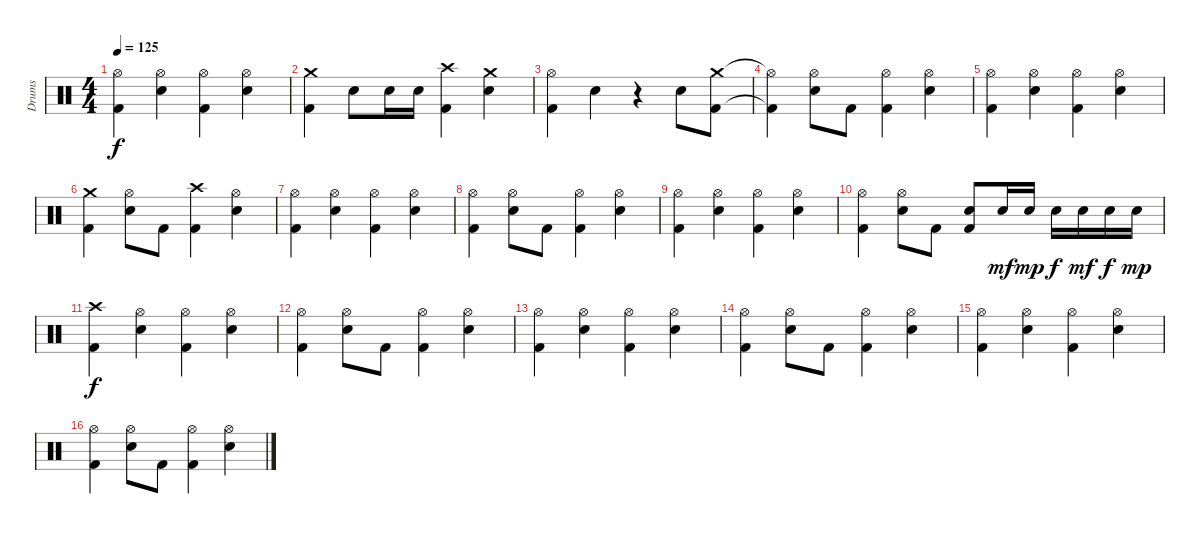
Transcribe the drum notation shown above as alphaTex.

\track ("Drums" "Drums") {instrument percussion}
\staff {score}
\articulation defaults
\ts (4 4)
\tempo 125
\clef neutral
\ks c
("Hi-Hat (open)" "Kick (hit) 2").4{dy f} ("Hi-Hat (open)" "Electric Snare (hit)").4 ("Hi-Hat (open)" "Kick (hit) 2").4 ("Hi-Hat (open)" "Electric Snare (hit)").4 |
("Crash medium (hit)" "Kick (hit) 2").4 "Electric Snare (hit)".8 "Electric Snare (hit)".16 "Electric Snare (hit)".16 ("Crash high (hit)" "Kick (hit) 2").4 ("Crash medium (hit)" "Electric Snare (hit)").4 |
("Hi-Hat (open)" "Kick (hit) 2").4 "Snare (hit) 2".4 r.4 "Electric Snare (hit)".8 ("Crash medium (hit)" "Kick (hit) 2").8 |
("Hi-Hat (open)"{t} "Kick (hit) 2"{t}).4 ("Hi-Hat (open)" "Electric Snare (hit)").8 "Kick (hit) 2".8 ("Hi-Hat (open)" "Kick (hit) 2").4 ("Hi-Hat (open)" "Electric Snare (hit)").4 |
("Hi-Hat (open)" "Kick (hit) 2").4 ("Hi-Hat (open)" "Electric Snare (hit)").4 ("Hi-Hat (open)" "Kick (hit) 2").4 ("Hi-Hat (open)" "Electric Snare (hit)").4 |
("Crash medium (hit)" "Kick (hit) 2").4 ("Hi-Hat (open)" "Electric Snare (hit)").8 "Kick (hit) 2".8 ("Crash high (hit)" "Kick (hit) 2").4 ("Hi-Hat (open)" "Electric Snare (hit)").4 |
("Hi-Hat (open)" "Kick (hit) 2").4 ("Hi-Hat (open)" "Electric Snare (hit)").4 ("Hi-Hat (open)" "Kick (hit) 2").4 ("Hi-Hat (open)" "Electric Snare (hit)").4 |
("Hi-Hat (open)" "Kick (hit) 2").4 ("Hi-Hat (open)" "Electric Snare (hit)").8 "Kick (hit) 2".8 ("Hi-Hat (open)" "Kick (hit) 2").4 ("Hi-Hat (open)" "Electric Snare (hit)").4 |
("Hi-Hat (open)" "Kick (hit) 2").4 ("Hi-Hat (open)" "Electric Snare (hit)").4 ("Hi-Hat (open)" "Kick (hit) 2").4 ("Hi-Hat (open)" "Electric Snare (hit)").4 |
("Hi-Hat (open)" "Kick (hit) 2").4 ("Hi-Hat (open)" "Electric Snare (hit)").8 "Kick (hit) 2".8 ("Electric Snare (hit)" "Kick (hit) 2").8 "Electric Snare (hit)".16{dy mf} "Electric Snare (hit)".16{dy mp} "Electric Snare (hit)".16{dy f} "Electric Snare (hit)".16{dy mf} "Electric Snare (hit)".16{dy f} "Electric Snare (hit)".16{dy mp} |
("Crash high (hit)" "Kick (hit) 2").4{dy f} ("Hi-Hat (open)" "Electric Snare (hit)").4 ("Hi-Hat (open)" "Kick (hit) 2").4 ("Hi-Hat (open)" "Electric Snare (hit)").4 |
("Hi-Hat (open)" "Kick (hit) 2").4 ("Hi-Hat (open)" "Electric Snare (hit)").8 "Kick (hit) 2".8 ("Hi-Hat (open)" "Kick (hit) 2").4 ("Hi-Hat (open)" "Electric Snare (hit)").4 |
("Hi-Hat (open)" "Kick (hit) 2").4 ("Hi-Hat (open)" "Electric Snare (hit)").4 ("Hi-Hat (open)" "Kick (hit) 2").4 ("Hi-Hat (open)" "Electric Snare (hit)").4 |
("Hi-Hat (open)" "Kick (hit) 2").4 ("Hi-Hat (open)" "Electric Snare (hit)").8 "Kick (hit) 2".8 ("Hi-Hat (open)" "Kick (hit) 2").4 ("Hi-Hat (open)" "Electric Snare (hit)").4 |
("Hi-Hat (open)" "Kick (hit) 2").4 ("Hi-Hat (open)" "Electric Snare (hit)").4 ("Hi-Hat (open)" "Kick (hit) 2").4 ("Hi-Hat (open)" "Electric Snare (hit)").4 |
("Hi-Hat (open)" "Kick (hit) 2").4 ("Hi-Hat (open)" "Electric Snare (hit)").8 "Kick (hit) 2".8 ("Hi-Hat (open)" "Kick (hit) 2").4 ("Hi-Hat (open)" "Electric Snare (hit)").4
